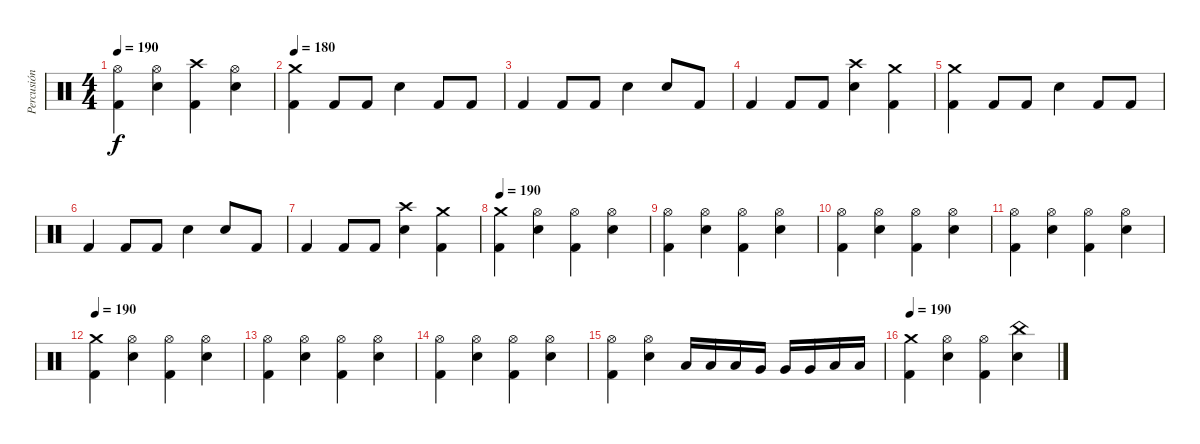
\track ("Percusión" "Percusión") {instrument percussion}
\staff {score}
\articulation defaults
\ts (4 4)
\tempo 190
\clef neutral
\ks c
("Hi-Hat (open)" "Kick (hit) 2").4{dy f} ("Hi-Hat (open)" "Electric Snare (hit)").4 ("Crash high (hit)" "Kick (hit) 2").4 ("Hi-Hat (open)" "Electric Snare (hit)").4 |
\tempo 180
("Crash medium (hit)" "Kick (hit) 2").4 "Kick (hit) 2".8 "Kick (hit) 2".8 "Electric Snare (hit)".4 "Kick (hit) 2".8 "Kick (hit) 2".8 |
"Kick (hit) 2".4 "Kick (hit) 2".8 "Kick (hit) 2".8 "Electric Snare (hit)".4 "Electric Snare (hit)".8 "Kick (hit) 2".8 |
"Kick (hit) 2".4 "Kick (hit) 2".8 "Kick (hit) 2".8 ("Crash high (hit)" "Electric Snare (hit)").4 ("Crash medium (hit)" "Kick (hit) 2").4 |
("Crash medium (hit)" "Kick (hit) 2").4 "Kick (hit) 2".8 "Kick (hit) 2".8 "Electric Snare (hit)".4 "Kick (hit) 2".8 "Kick (hit) 2".8 |
"Kick (hit) 2".4 "Kick (hit) 2".8 "Kick (hit) 2".8 "Electric Snare (hit)".4 "Electric Snare (hit)".8 "Kick (hit) 2".8 |
"Kick (hit) 2".4 "Kick (hit) 2".8 "Kick (hit) 2".8 ("Crash high (hit)" "Electric Snare (hit)").4 ("Crash medium (hit)" "Kick (hit) 2").4 |
\tempo 190
("Crash medium (hit)" "Kick (hit) 2").4 ("Hi-Hat (open)" "Electric Snare (hit)").4 ("Hi-Hat (open)" "Kick (hit) 2").4 ("Hi-Hat (open)" "Electric Snare (hit)").4 |
("Hi-Hat (open)" "Kick (hit) 2").4 ("Hi-Hat (open)" "Electric Snare (hit)").4 ("Hi-Hat (open)" "Kick (hit) 2").4 ("Hi-Hat (open)" "Electric Snare (hit)").4 |
("Hi-Hat (open)" "Kick (hit) 2").4 ("Hi-Hat (open)" "Electric Snare (hit)").4 ("Hi-Hat (open)" "Kick (hit) 2").4 ("Hi-Hat (open)" "Electric Snare (hit)").4 |
("Hi-Hat (open)" "Kick (hit) 2").4 ("Hi-Hat (open)" "Electric Snare (hit)").4 ("Hi-Hat (open)" "Kick (hit) 2").4 ("Hi-Hat (open)" "Electric Snare (hit)").4 |
\tempo 190
("Crash medium (hit)" "Kick (hit) 2").4 ("Hi-Hat (open)" "Electric Snare (hit)").4 ("Hi-Hat (open)" "Kick (hit) 2").4 ("Hi-Hat (open)" "Electric Snare (hit)").4 |
("Hi-Hat (open)" "Kick (hit) 2").4 ("Hi-Hat (open)" "Electric Snare (hit)").4 ("Hi-Hat (open)" "Kick (hit) 2").4 ("Hi-Hat (open)" "Electric Snare (hit)").4 |
("Hi-Hat (open)" "Kick (hit) 2").4 ("Hi-Hat (open)" "Electric Snare (hit)").4 ("Hi-Hat (open)" "Kick (hit) 2").4 ("Hi-Hat (open)" "Electric Snare (hit)").4 |
("Hi-Hat (open)" "Kick (hit) 2").4 ("Hi-Hat (open)" "Electric Snare (hit)").4 "Low Tom (hit)".16 "Low Tom (hit)".16 "Low Tom (hit)".16 "Very Low Tom (hit)".16 "Very Low Tom (hit)".16 "Very Low Tom (hit)".16 "Low Floor Tom (hit)".16 "Low Floor Tom (hit)".16 |
\tempo 190
("Crash medium (hit)" "Kick (hit) 2").4 ("Hi-Hat (open)" "Electric Snare (hit)").4 ("Hi-Hat (open)" "Kick (hit) 2").4 ("China (hit)" "Electric Snare (hit)").4
